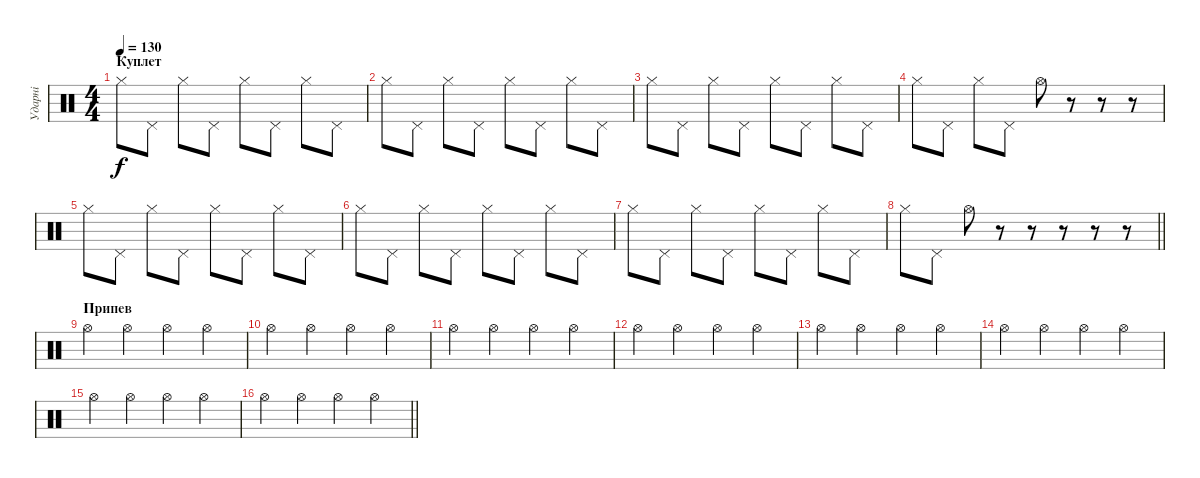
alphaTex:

\track ("Ударні" "Ударні") {instrument percussion}
\staff {score}
\articulation defaults
\ts (4 4)
\section ("" "Куплет")
\tempo 130
\clef neutral
\ks c "Hi-Hat (closed)".8{dy f} "Pedal Hi-Hat (hit)".8 "Hi-Hat (closed)".8 "Pedal Hi-Hat (hit)".8 "Hi-Hat (closed)".8 "Pedal Hi-Hat (hit)".8 "Hi-Hat (closed)".8 "Pedal Hi-Hat (hit)".8
|
"Hi-Hat (closed)".8 "Pedal Hi-Hat (hit)".8 "Hi-Hat (closed)".8 "Pedal Hi-Hat (hit)".8 "Hi-Hat (closed)".8 "Pedal Hi-Hat (hit)".8 "Hi-Hat (closed)".8 "Pedal Hi-Hat (hit)".8 |
"Hi-Hat (closed)".8 "Pedal Hi-Hat (hit)".8 "Hi-Hat (closed)".8 "Pedal Hi-Hat (hit)".8 "Hi-Hat (closed)".8 "Pedal Hi-Hat (hit)".8 "Hi-Hat (closed)".8 "Pedal Hi-Hat (hit)".8 |
"Hi-Hat (closed)".8 "Pedal Hi-Hat (hit)".8 "Hi-Hat (closed)".8 "Pedal Hi-Hat (hit)".8 "Hi-Hat (open)".8 r.8 r.8 r.8 |
"Hi-Hat (closed)".8 "Pedal Hi-Hat (hit)".8 "Hi-Hat (closed)".8 "Pedal Hi-Hat (hit)".8 "Hi-Hat (closed)".8 "Pedal Hi-Hat (hit)".8 "Hi-Hat (closed)".8 "Pedal Hi-Hat (hit)".8 |
"Hi-Hat (closed)".8 "Pedal Hi-Hat (hit)".8 "Hi-Hat (closed)".8 "Pedal Hi-Hat (hit)".8 "Hi-Hat (closed)".8 "Pedal Hi-Hat (hit)".8 "Hi-Hat (closed)".8 "Pedal Hi-Hat (hit)".8 |
"Hi-Hat (closed)".8 "Pedal Hi-Hat (hit)".8 "Hi-Hat (closed)".8 "Pedal Hi-Hat (hit)".8 "Hi-Hat (closed)".8 "Pedal Hi-Hat (hit)".8 "Hi-Hat (closed)".8 "Pedal Hi-Hat (hit)".8 |
\barLineRight lightlight "Hi-Hat (closed)".8 "Pedal Hi-Hat (hit)".8 "Hi-Hat (open)".8
r.8 r.8 r.8 r.8 r.8 |
\section ("" "Припев")
"Hi-Hat (open)".4 "Hi-Hat (open)".4 "Hi-Hat (open)".4 "Hi-Hat (open)".4 |
"Hi-Hat (open)".4 "Hi-Hat (open)".4 "Hi-Hat (open)".4 "Hi-Hat (open)".4 |
"Hi-Hat (open)".4 "Hi-Hat (open)".4 "Hi-Hat (open)".4 "Hi-Hat (open)".4 |
"Hi-Hat (open)".4 "Hi-Hat (open)".4 "Hi-Hat (open)".4 "Hi-Hat (open)".4 |
"Hi-Hat (open)".4 "Hi-Hat (open)".4 "Hi-Hat (open)".4 "Hi-Hat (open)".4 |
"Hi-Hat (open)".4 "Hi-Hat (open)".4 "Hi-Hat (open)".4 "Hi-Hat (open)".4 |
"Hi-Hat (open)".4 "Hi-Hat (open)".4 "Hi-Hat (open)".4 "Hi-Hat (open)".4 |
\barLineRight lightlight "Hi-Hat (open)".4 "Hi-Hat (open)".4 "Hi-Hat (open)".4 "Hi-Hat (open)".4
